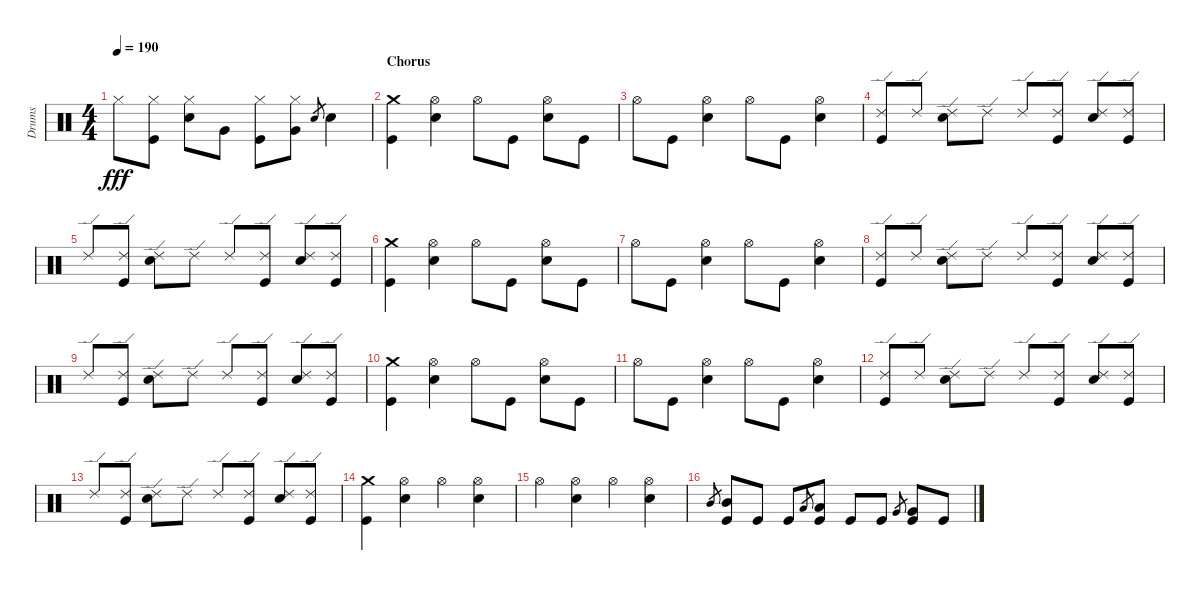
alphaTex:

\track ("Drums" "Drums") {instrument percussion}
\staff {score}
\articulation defaults
\ts (4 4)
\tempo 190
\clef neutral
\ks c "Hi-Hat (closed)".8{dy fff}
("Hi-Hat (closed)" "Kick (hit)").8 ("Hi-Hat (closed)" "Snare (hit) 2").8 "Very Low Tom (hit)".8 ("Hi-Hat (closed)" "Kick (hit)").8 ("Hi-Hat (closed)" "Very Low Tom (hit)").8 "Snare (hit) 2".8{gr} "Snare (hit) 2".4 |
\section ("" "Chorus")
("Crash medium (hit)" "Kick (hit)").4 ("Hi-Hat (open)" "Snare (hit) 2").4 "Hi-Hat (open)".8 "Kick (hit)".8 ("Hi-Hat (open)" "Snare (hit) 2").8 "Kick (hit)".8 |
"Hi-Hat (open)".8 "Kick (hit)".8 ("Hi-Hat (open)" "Snare (hit) 2").4 "Hi-Hat (open)".8 "Kick (hit)".8 ("Hi-Hat (open)" "Snare (hit) 2").4 |
("Ride (edge) 2" "Kick (hit)").8 "Ride (edge) 2".8 ("Ride (edge) 2" "Snare (hit) 2").8 "Ride (edge) 2".8 "Ride (edge) 2".8 ("Ride (edge) 2" "Kick (hit)").8 ("Ride (edge) 2" "Snare (hit) 2").8 ("Ride (edge) 2" "Kick (hit)").8 |
"Ride (edge) 2".8 ("Ride (edge) 2" "Kick (hit)").8 ("Ride (edge) 2" "Snare (hit) 2").8 "Ride (edge) 2".8 "Ride (edge) 2".8 ("Ride (edge) 2" "Kick (hit)").8 ("Ride (edge) 2" "Snare (hit) 2").8 ("Ride (edge) 2" "Kick (hit)").8 |
("Crash medium (hit)" "Kick (hit)").4 ("Hi-Hat (open)" "Snare (hit) 2").4 "Hi-Hat (open)".8 "Kick (hit)".8 ("Hi-Hat (open)" "Snare (hit) 2").8 "Kick (hit)".8 |
"Hi-Hat (open)".8 "Kick (hit)".8 ("Hi-Hat (open)" "Snare (hit) 2").4 "Hi-Hat (open)".8 "Kick (hit)".8 ("Hi-Hat (open)" "Snare (hit) 2").4 |
("Ride (edge) 2" "Kick (hit)").8 "Ride (edge) 2".8 ("Ride (edge) 2" "Snare (hit) 2").8 "Ride (edge) 2".8 "Ride (edge) 2".8 ("Ride (edge) 2" "Kick (hit)").8 ("Ride (edge) 2" "Snare (hit) 2").8 ("Ride (edge) 2" "Kick (hit)").8 |
"Ride (edge) 2".8 ("Ride (edge) 2" "Kick (hit)").8 ("Ride (edge) 2" "Snare (hit) 2").8 "Ride (edge) 2".8 "Ride (edge) 2".8 ("Ride (edge) 2" "Kick (hit)").8 ("Ride (edge) 2" "Snare (hit) 2").8 ("Ride (edge) 2" "Kick (hit)").8 |
("Crash medium (hit)" "Kick (hit)").4 ("Hi-Hat (open)" "Snare (hit) 2").4 "Hi-Hat (open)".8 "Kick (hit)".8 ("Hi-Hat (open)" "Snare (hit) 2").8 "Kick (hit)".8 |
"Hi-Hat (open)".8 "Kick (hit)".8 ("Hi-Hat (open)" "Snare (hit) 2").4 "Hi-Hat (open)".8 "Kick (hit)".8 ("Hi-Hat (open)" "Snare (hit) 2").4 |
("Ride (edge) 2" "Kick (hit)").8 "Ride (edge) 2".8 ("Ride (edge) 2" "Snare (hit) 2").8 "Ride (edge) 2".8 "Ride (edge) 2".8 ("Ride (edge) 2" "Kick (hit)").8 ("Ride (edge) 2" "Snare (hit) 2").8 ("Ride (edge) 2" "Kick (hit)").8 |
"Ride (edge) 2".8 ("Ride (edge) 2" "Kick (hit)").8 ("Ride (edge) 2" "Snare (hit) 2").8 "Ride (edge) 2".8 "Ride (edge) 2".8 ("Ride (edge) 2" "Kick (hit)").8 ("Ride (edge) 2" "Snare (hit) 2").8 ("Ride (edge) 2" "Kick (hit)").8 |
("Crash medium (hit)" "Kick (hit)").4 ("Hi-Hat (open)" "Snare (hit) 2").4 "Hi-Hat (open)".4 ("Hi-Hat (open)" "Snare (hit) 2").4 |
"Hi-Hat (open)".4 ("Hi-Hat (open)" "Snare (hit) 2").4 "Hi-Hat (open)".4 ("Hi-Hat (open)" "Snare (hit) 2").4 |
"Mid Tom (hit)".8{gr} ("Mid Tom (hit)" "Kick (hit)").8 "Kick (hit)".8 "Kick (hit)".8 "Low Tom (hit)".8{gr} ("Low Tom (hit)" "Kick (hit)").8 "Kick (hit)".8 "Kick (hit)".8 "Very Low Tom (hit)".8{gr} ("Very Low Tom (hit)" "Kick (hit)").8 "Kick (hit)".8
